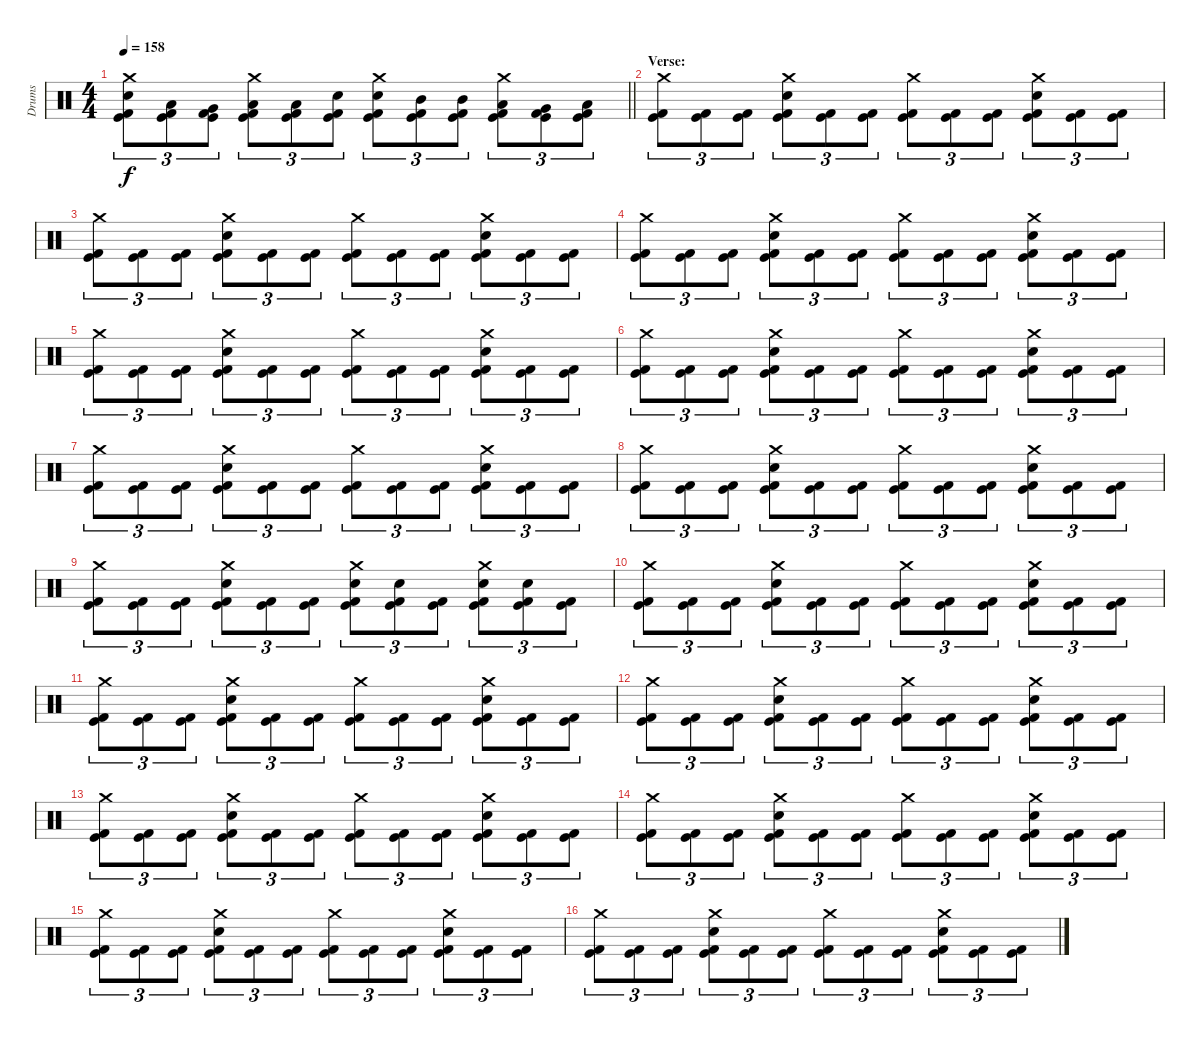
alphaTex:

\track ("Drums" "Drums") {instrument percussion}
\staff {score}
\articulation defaults
\ts (4 4)
\tempo 158
\clef neutral
\barLineRight lightlight
\ks c
("Crash medium (hit)" "Snare (hit) 2" "Kick (hit)" "Kick (hit) 2").8{tu (3 2) dy f} ("Low Tom (hit)" "Kick (hit)" "Kick (hit) 2").8{tu (3 2)} ("Very Low Tom (hit)" "Kick (hit)" "Kick (hit) 2").8{tu (3 2)} ("Crash medium (hit)" "Low Floor Tom (hit)" "Kick (hit)" "Kick (hit) 2").8{tu (3 2)} ("Low Floor Tom (hit)" "Kick (hit)" "Kick (hit) 2").8{tu (3 2)} ("Snare (hit) 2" "Kick (hit)" "Kick (hit) 2").8{tu (3 2)} ("Crash medium (hit)" "Snare (hit) 2" "Kick (hit)" "Kick (hit) 2").8{tu (3 2)} ("Mid Tom (hit)" "Kick (hit)" "Kick (hit) 2").8{tu (3 2)} ("Mid Tom (hit)" "Kick (hit)" "Kick (hit) 2").8{tu (3 2)} ("Crash medium (hit)" "Low Tom (hit)" "Kick (hit)" "Kick (hit) 2").8{tu (3 2)} ("Very Low Tom (hit)" "Kick (hit)" "Kick (hit) 2").8{tu (3 2)} ("Low Floor Tom (hit)" "Kick (hit)" "Kick (hit) 2").8{tu (3 2)} |
\section ("" "Verse:")
("Crash medium (hit)" "Kick (hit)" "Kick (hit) 2").8{tu (3 2)} ("Kick (hit)" "Kick (hit) 2").8{tu (3 2)} ("Kick (hit)" "Kick (hit) 2").8{tu (3 2)} ("Crash medium (hit)" "Snare (hit) 2" "Kick (hit)" "Kick (hit) 2").8{tu (3 2)} ("Kick (hit)" "Kick (hit) 2").8{tu (3 2)} ("Kick (hit)" "Kick (hit) 2").8{tu (3 2)} ("Crash medium (hit)" "Kick (hit)" "Kick (hit) 2").8{tu (3 2)} ("Kick (hit)" "Kick (hit) 2").8{tu (3 2)} ("Kick (hit)" "Kick (hit) 2").8{tu (3 2)} ("Crash medium (hit)" "Snare (hit) 2" "Kick (hit)" "Kick (hit) 2").8{tu (3 2)} ("Kick (hit)" "Kick (hit) 2").8{tu (3 2)} ("Kick (hit)" "Kick (hit) 2").8{tu (3 2)} |
("Crash medium (hit)" "Kick (hit)" "Kick (hit) 2").8{tu (3 2)} ("Kick (hit)" "Kick (hit) 2").8{tu (3 2)} ("Kick (hit)" "Kick (hit) 2").8{tu (3 2)} ("Crash medium (hit)" "Snare (hit) 2" "Kick (hit)" "Kick (hit) 2").8{tu (3 2)} ("Kick (hit)" "Kick (hit) 2").8{tu (3 2)} ("Kick (hit)" "Kick (hit) 2").8{tu (3 2)} ("Crash medium (hit)" "Kick (hit)" "Kick (hit) 2").8{tu (3 2)} ("Kick (hit)" "Kick (hit) 2").8{tu (3 2)} ("Kick (hit)" "Kick (hit) 2").8{tu (3 2)} ("Crash medium (hit)" "Snare (hit) 2" "Kick (hit)" "Kick (hit) 2").8{tu (3 2)} ("Kick (hit)" "Kick (hit) 2").8{tu (3 2)} ("Kick (hit)" "Kick (hit) 2").8{tu (3 2)} |
("Crash medium (hit)" "Kick (hit)" "Kick (hit) 2").8{tu (3 2)} ("Kick (hit)" "Kick (hit) 2").8{tu (3 2)} ("Kick (hit)" "Kick (hit) 2").8{tu (3 2)} ("Crash medium (hit)" "Snare (hit) 2" "Kick (hit)" "Kick (hit) 2").8{tu (3 2)} ("Kick (hit)" "Kick (hit) 2").8{tu (3 2)} ("Kick (hit)" "Kick (hit) 2").8{tu (3 2)} ("Crash medium (hit)" "Kick (hit)" "Kick (hit) 2").8{tu (3 2)} ("Kick (hit)" "Kick (hit) 2").8{tu (3 2)} ("Kick (hit)" "Kick (hit) 2").8{tu (3 2)} ("Crash medium (hit)" "Snare (hit) 2" "Kick (hit)" "Kick (hit) 2").8{tu (3 2)} ("Kick (hit)" "Kick (hit) 2").8{tu (3 2)} ("Kick (hit)" "Kick (hit) 2").8{tu (3 2)} |
("Crash medium (hit)" "Kick (hit)" "Kick (hit) 2").8{tu (3 2)} ("Kick (hit)" "Kick (hit) 2").8{tu (3 2)} ("Kick (hit)" "Kick (hit) 2").8{tu (3 2)} ("Crash medium (hit)" "Snare (hit) 2" "Kick (hit)" "Kick (hit) 2").8{tu (3 2)} ("Kick (hit)" "Kick (hit) 2").8{tu (3 2)} ("Kick (hit)" "Kick (hit) 2").8{tu (3 2)} ("Crash medium (hit)" "Kick (hit)" "Kick (hit) 2").8{tu (3 2)} ("Kick (hit)" "Kick (hit) 2").8{tu (3 2)} ("Kick (hit)" "Kick (hit) 2").8{tu (3 2)} ("Crash medium (hit)" "Snare (hit) 2" "Kick (hit)" "Kick (hit) 2").8{tu (3 2)} ("Kick (hit)" "Kick (hit) 2").8{tu (3 2)} ("Kick (hit)" "Kick (hit) 2").8{tu (3 2)} |
("Crash medium (hit)" "Kick (hit)" "Kick (hit) 2").8{tu (3 2)} ("Kick (hit)" "Kick (hit) 2").8{tu (3 2)} ("Kick (hit)" "Kick (hit) 2").8{tu (3 2)} ("Crash medium (hit)" "Snare (hit) 2" "Kick (hit)" "Kick (hit) 2").8{tu (3 2)} ("Kick (hit)" "Kick (hit) 2").8{tu (3 2)} ("Kick (hit)" "Kick (hit) 2").8{tu (3 2)} ("Crash medium (hit)" "Kick (hit)" "Kick (hit) 2").8{tu (3 2)} ("Kick (hit)" "Kick (hit) 2").8{tu (3 2)} ("Kick (hit)" "Kick (hit) 2").8{tu (3 2)} ("Crash medium (hit)" "Snare (hit) 2" "Kick (hit)" "Kick (hit) 2").8{tu (3 2)} ("Kick (hit)" "Kick (hit) 2").8{tu (3 2)} ("Kick (hit)" "Kick (hit) 2").8{tu (3 2)} |
("Crash medium (hit)" "Kick (hit)" "Kick (hit) 2").8{tu (3 2)} ("Kick (hit)" "Kick (hit) 2").8{tu (3 2)} ("Kick (hit)" "Kick (hit) 2").8{tu (3 2)} ("Crash medium (hit)" "Snare (hit) 2" "Kick (hit)" "Kick (hit) 2").8{tu (3 2)} ("Kick (hit)" "Kick (hit) 2").8{tu (3 2)} ("Kick (hit)" "Kick (hit) 2").8{tu (3 2)} ("Crash medium (hit)" "Kick (hit)" "Kick (hit) 2").8{tu (3 2)} ("Kick (hit)" "Kick (hit) 2").8{tu (3 2)} ("Kick (hit)" "Kick (hit) 2").8{tu (3 2)} ("Crash medium (hit)" "Snare (hit) 2" "Kick (hit)" "Kick (hit) 2").8{tu (3 2)} ("Kick (hit)" "Kick (hit) 2").8{tu (3 2)} ("Kick (hit)" "Kick (hit) 2").8{tu (3 2)} |
("Crash medium (hit)" "Kick (hit)" "Kick (hit) 2").8{tu (3 2)} ("Kick (hit)" "Kick (hit) 2").8{tu (3 2)} ("Kick (hit)" "Kick (hit) 2").8{tu (3 2)} ("Crash medium (hit)" "Snare (hit) 2" "Kick (hit)" "Kick (hit) 2").8{tu (3 2)} ("Kick (hit)" "Kick (hit) 2").8{tu (3 2)} ("Kick (hit)" "Kick (hit) 2").8{tu (3 2)} ("Crash medium (hit)" "Kick (hit)" "Kick (hit) 2").8{tu (3 2)} ("Kick (hit)" "Kick (hit) 2").8{tu (3 2)} ("Kick (hit)" "Kick (hit) 2").8{tu (3 2)} ("Crash medium (hit)" "Snare (hit) 2" "Kick (hit)" "Kick (hit) 2").8{tu (3 2)} ("Kick (hit)" "Kick (hit) 2").8{tu (3 2)} ("Kick (hit)" "Kick (hit) 2").8{tu (3 2)} |
("Crash medium (hit)" "Kick (hit)" "Kick (hit) 2").8{tu (3 2)} ("Kick (hit)" "Kick (hit) 2").8{tu (3 2)} ("Kick (hit)" "Kick (hit) 2").8{tu (3 2)} ("Crash medium (hit)" "Snare (hit) 2" "Kick (hit)" "Kick (hit) 2").8{tu (3 2)} ("Kick (hit)" "Kick (hit) 2").8{tu (3 2)} ("Kick (hit)" "Kick (hit) 2").8{tu (3 2)} ("Crash medium (hit)" "Snare (hit) 2" "Kick (hit)" "Kick (hit) 2").8{tu (3 2)} ("Snare (hit) 2" "Kick (hit)" "Kick (hit) 2").8{tu (3 2)} ("Kick (hit)" "Kick (hit) 2").8{tu (3 2)} ("Crash medium (hit)" "Snare (hit) 2" "Kick (hit)" "Kick (hit) 2").8{tu (3 2)} ("Snare (hit) 2" "Kick (hit)" "Kick (hit) 2").8{tu (3 2)} ("Kick (hit)" "Kick (hit) 2").8{tu (3 2)} |
("Crash medium (hit)" "Kick (hit)" "Kick (hit) 2").8{tu (3 2)} ("Kick (hit)" "Kick (hit) 2").8{tu (3 2)} ("Kick (hit)" "Kick (hit) 2").8{tu (3 2)} ("Crash medium (hit)" "Snare (hit) 2" "Kick (hit)" "Kick (hit) 2").8{tu (3 2)} ("Kick (hit)" "Kick (hit) 2").8{tu (3 2)} ("Kick (hit)" "Kick (hit) 2").8{tu (3 2)} ("Crash medium (hit)" "Kick (hit)" "Kick (hit) 2").8{tu (3 2)} ("Kick (hit)" "Kick (hit) 2").8{tu (3 2)} ("Kick (hit)" "Kick (hit) 2").8{tu (3 2)} ("Crash medium (hit)" "Snare (hit) 2" "Kick (hit)" "Kick (hit) 2").8{tu (3 2)} ("Kick (hit)" "Kick (hit) 2").8{tu (3 2)} ("Kick (hit)" "Kick (hit) 2").8{tu (3 2)} |
("Crash medium (hit)" "Kick (hit)" "Kick (hit) 2").8{tu (3 2)} ("Kick (hit)" "Kick (hit) 2").8{tu (3 2)} ("Kick (hit)" "Kick (hit) 2").8{tu (3 2)} ("Crash medium (hit)" "Snare (hit) 2" "Kick (hit)" "Kick (hit) 2").8{tu (3 2)} ("Kick (hit)" "Kick (hit) 2").8{tu (3 2)} ("Kick (hit)" "Kick (hit) 2").8{tu (3 2)} ("Crash medium (hit)" "Kick (hit)" "Kick (hit) 2").8{tu (3 2)} ("Kick (hit)" "Kick (hit) 2").8{tu (3 2)} ("Kick (hit)" "Kick (hit) 2").8{tu (3 2)} ("Crash medium (hit)" "Snare (hit) 2" "Kick (hit)" "Kick (hit) 2").8{tu (3 2)} ("Kick (hit)" "Kick (hit) 2").8{tu (3 2)} ("Kick (hit)" "Kick (hit) 2").8{tu (3 2)} |
("Crash medium (hit)" "Kick (hit)" "Kick (hit) 2").8{tu (3 2)} ("Kick (hit)" "Kick (hit) 2").8{tu (3 2)} ("Kick (hit)" "Kick (hit) 2").8{tu (3 2)} ("Crash medium (hit)" "Snare (hit) 2" "Kick (hit)" "Kick (hit) 2").8{tu (3 2)} ("Kick (hit)" "Kick (hit) 2").8{tu (3 2)} ("Kick (hit)" "Kick (hit) 2").8{tu (3 2)} ("Crash medium (hit)" "Kick (hit)" "Kick (hit) 2").8{tu (3 2)} ("Kick (hit)" "Kick (hit) 2").8{tu (3 2)} ("Kick (hit)" "Kick (hit) 2").8{tu (3 2)} ("Crash medium (hit)" "Snare (hit) 2" "Kick (hit)" "Kick (hit) 2").8{tu (3 2)} ("Kick (hit)" "Kick (hit) 2").8{tu (3 2)} ("Kick (hit)" "Kick (hit) 2").8{tu (3 2)} |
("Crash medium (hit)" "Kick (hit)" "Kick (hit) 2").8{tu (3 2)} ("Kick (hit)" "Kick (hit) 2").8{tu (3 2)} ("Kick (hit)" "Kick (hit) 2").8{tu (3 2)} ("Crash medium (hit)" "Snare (hit) 2" "Kick (hit)" "Kick (hit) 2").8{tu (3 2)} ("Kick (hit)" "Kick (hit) 2").8{tu (3 2)} ("Kick (hit)" "Kick (hit) 2").8{tu (3 2)} ("Crash medium (hit)" "Kick (hit)" "Kick (hit) 2").8{tu (3 2)} ("Kick (hit)" "Kick (hit) 2").8{tu (3 2)} ("Kick (hit)" "Kick (hit) 2").8{tu (3 2)} ("Crash medium (hit)" "Snare (hit) 2" "Kick (hit)" "Kick (hit) 2").8{tu (3 2)} ("Kick (hit)" "Kick (hit) 2").8{tu (3 2)} ("Kick (hit)" "Kick (hit) 2").8{tu (3 2)} |
("Crash medium (hit)" "Kick (hit)" "Kick (hit) 2").8{tu (3 2)} ("Kick (hit)" "Kick (hit) 2").8{tu (3 2)} ("Kick (hit)" "Kick (hit) 2").8{tu (3 2)} ("Crash medium (hit)" "Snare (hit) 2" "Kick (hit)" "Kick (hit) 2").8{tu (3 2)} ("Kick (hit)" "Kick (hit) 2").8{tu (3 2)} ("Kick (hit)" "Kick (hit) 2").8{tu (3 2)} ("Crash medium (hit)" "Kick (hit)" "Kick (hit) 2").8{tu (3 2)} ("Kick (hit)" "Kick (hit) 2").8{tu (3 2)} ("Kick (hit)" "Kick (hit) 2").8{tu (3 2)} ("Crash medium (hit)" "Snare (hit) 2" "Kick (hit)" "Kick (hit) 2").8{tu (3 2)} ("Kick (hit)" "Kick (hit) 2").8{tu (3 2)} ("Kick (hit)" "Kick (hit) 2").8{tu (3 2)} |
("Crash medium (hit)" "Kick (hit)" "Kick (hit) 2").8{tu (3 2)} ("Kick (hit)" "Kick (hit) 2").8{tu (3 2)} ("Kick (hit)" "Kick (hit) 2").8{tu (3 2)} ("Crash medium (hit)" "Snare (hit) 2" "Kick (hit)" "Kick (hit) 2").8{tu (3 2)} ("Kick (hit)" "Kick (hit) 2").8{tu (3 2)} ("Kick (hit)" "Kick (hit) 2").8{tu (3 2)} ("Crash medium (hit)" "Kick (hit)" "Kick (hit) 2").8{tu (3 2)} ("Kick (hit)" "Kick (hit) 2").8{tu (3 2)} ("Kick (hit)" "Kick (hit) 2").8{tu (3 2)} ("Crash medium (hit)" "Snare (hit) 2" "Kick (hit)" "Kick (hit) 2").8{tu (3 2)} ("Kick (hit)" "Kick (hit) 2").8{tu (3 2)} ("Kick (hit)" "Kick (hit) 2").8{tu (3 2)} |
("Crash medium (hit)" "Kick (hit)" "Kick (hit) 2").8{tu (3 2)} ("Kick (hit)" "Kick (hit) 2").8{tu (3 2)} ("Kick (hit)" "Kick (hit) 2").8{tu (3 2)} ("Crash medium (hit)" "Snare (hit) 2" "Kick (hit)" "Kick (hit) 2").8{tu (3 2)} ("Kick (hit)" "Kick (hit) 2").8{tu (3 2)} ("Kick (hit)" "Kick (hit) 2").8{tu (3 2)} ("Crash medium (hit)" "Kick (hit)" "Kick (hit) 2").8{tu (3 2)} ("Kick (hit)" "Kick (hit) 2").8{tu (3 2)} ("Kick (hit)" "Kick (hit) 2").8{tu (3 2)} ("Crash medium (hit)" "Snare (hit) 2" "Kick (hit)" "Kick (hit) 2").8{tu (3 2)} ("Kick (hit)" "Kick (hit) 2").8{tu (3 2)} ("Kick (hit)" "Kick (hit) 2").8{tu (3 2)}
